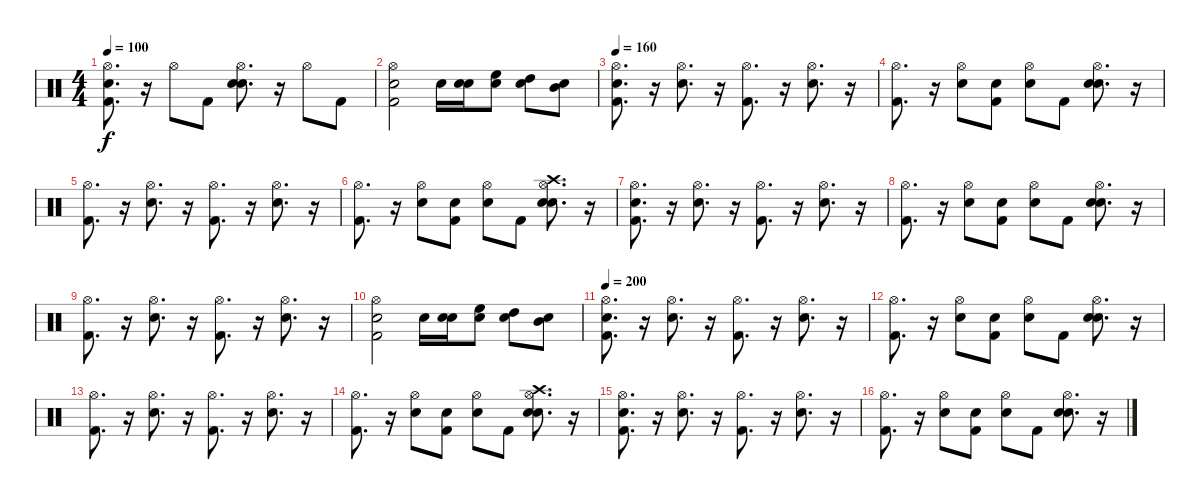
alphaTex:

\track "" {instrument percussion}
\staff {score}
\articulation defaults
\ts (4 4)
\tempo 100
\clef neutral
\ks c
("Snare (hit)" "Kick (hit) 2" "Hi-Hat (open)").8{d dy f} r.16 "Hi-Hat (open)".8 "Kick (hit) 2".8 ("Snare (hit)" "Snare (hit) 2" "Hi-Hat (open)").8{d} r.16 "Hi-Hat (open)".8 "Kick (hit) 2".8 |
("Snare (hit)" "Kick (hit) 2" "Hi-Hat (open)").2 "Snare (hit) 2".16 ("Snare (hit)" "Snare (hit) 2").16 ("Snare (hit)" "High Floor Tom (hit)").8 ("Snare (hit)" "High Tom (hit)").8 ("Snare (hit)" "Mid Tom (hit)").8 |
\tempo 160
("Snare (hit)" "Kick (hit) 2" "Hi-Hat (open)").8{d} r.16 ("Snare (hit) 2" "Hi-Hat (open)").8{d} r.16 ("Kick (hit) 2" "Hi-Hat (open)").8{d} r.16 ("Snare (hit) 2" "Hi-Hat (open)").8{d} r.16 |
("Kick (hit) 2" "Hi-Hat (open)").8{d} r.16 ("Snare (hit) 2" "Hi-Hat (open)").8 ("Snare (hit)" "Kick (hit) 2").8 ("Snare (hit)" "Hi-Hat (open)").8 "Kick (hit) 2".8 ("Snare (hit)" "Snare (hit) 2" "Hi-Hat (open)").8{d} r.16 |
("Kick (hit) 2" "Hi-Hat (open)").8{d} r.16 ("Snare (hit) 2" "Hi-Hat (open)").8{d} r.16 ("Kick (hit) 2" "Hi-Hat (open)").8{d} r.16 ("Snare (hit) 2" "Hi-Hat (open)").8{d} r.16 |
("Kick (hit) 2" "Hi-Hat (open)").8{d} r.16 ("Snare (hit) 2" "Hi-Hat (open)").8 ("Snare (hit)" "Kick (hit) 2").8 ("Snare (hit)" "Hi-Hat (open)").8 "Kick (hit) 2".8 ("Snare (hit)" "Snare (hit) 2" "Hi-Hat (open)" "Crash high (hit)").8{d} r.16 |
("Snare (hit)" "Kick (hit) 2" "Hi-Hat (open)").8{d} r.16 ("Snare (hit) 2" "Hi-Hat (open)").8{d} r.16 ("Kick (hit) 2" "Hi-Hat (open)").8{d} r.16 ("Snare (hit) 2" "Hi-Hat (open)").8{d} r.16 |
("Kick (hit) 2" "Hi-Hat (open)").8{d} r.16 ("Snare (hit) 2" "Hi-Hat (open)").8 ("Snare (hit)" "Kick (hit) 2").8 ("Snare (hit)" "Hi-Hat (open)").8 "Kick (hit) 2".8 ("Snare (hit)" "Snare (hit) 2" "Hi-Hat (open)").8{d} r.16 |
("Kick (hit) 2" "Hi-Hat (open)").8{d} r.16 ("Snare (hit) 2" "Hi-Hat (open)").8{d} r.16 ("Kick (hit) 2" "Hi-Hat (open)").8{d} r.16 ("Snare (hit) 2" "Hi-Hat (open)").8{d} r.16 |
("Snare (hit)" "Kick (hit) 2" "Hi-Hat (open)").2 "Snare (hit) 2".16 ("Snare (hit)" "Snare (hit) 2").16 ("Snare (hit)" "High Floor Tom (hit)").8 ("Snare (hit)" "High Tom (hit)").8 ("Snare (hit)" "Mid Tom (hit)").8 |
\tempo 200
("Snare (hit)" "Kick (hit) 2" "Hi-Hat (open)").8{d} r.16 ("Snare (hit) 2" "Hi-Hat (open)").8{d} r.16 ("Kick (hit) 2" "Hi-Hat (open)").8{d} r.16 ("Snare (hit) 2" "Hi-Hat (open)").8{d} r.16 |
("Kick (hit) 2" "Hi-Hat (open)").8{d} r.16 ("Snare (hit) 2" "Hi-Hat (open)").8 ("Snare (hit)" "Kick (hit) 2").8 ("Snare (hit)" "Hi-Hat (open)").8 "Kick (hit) 2".8 ("Snare (hit)" "Snare (hit) 2" "Hi-Hat (open)").8{d} r.16 |
("Kick (hit) 2" "Hi-Hat (open)").8{d} r.16 ("Snare (hit) 2" "Hi-Hat (open)").8{d} r.16 ("Kick (hit) 2" "Hi-Hat (open)").8{d} r.16 ("Snare (hit) 2" "Hi-Hat (open)").8{d} r.16 |
("Kick (hit) 2" "Hi-Hat (open)").8{d} r.16 ("Snare (hit) 2" "Hi-Hat (open)").8 ("Snare (hit)" "Kick (hit) 2").8 ("Snare (hit)" "Hi-Hat (open)").8 "Kick (hit) 2".8 ("Snare (hit)" "Snare (hit) 2" "Hi-Hat (open)" "Crash high (hit)").8{d} r.16 |
("Snare (hit)" "Kick (hit) 2" "Hi-Hat (open)").8{d} r.16 ("Snare (hit) 2" "Hi-Hat (open)").8{d} r.16 ("Kick (hit) 2" "Hi-Hat (open)").8{d} r.16 ("Snare (hit) 2" "Hi-Hat (open)").8{d} r.16 |
("Kick (hit) 2" "Hi-Hat (open)").8{d} r.16 ("Snare (hit) 2" "Hi-Hat (open)").8 ("Snare (hit)" "Kick (hit) 2").8 ("Snare (hit)" "Hi-Hat (open)").8 "Kick (hit) 2".8 ("Snare (hit)" "Snare (hit) 2" "Hi-Hat (open)").8{d} r.16
